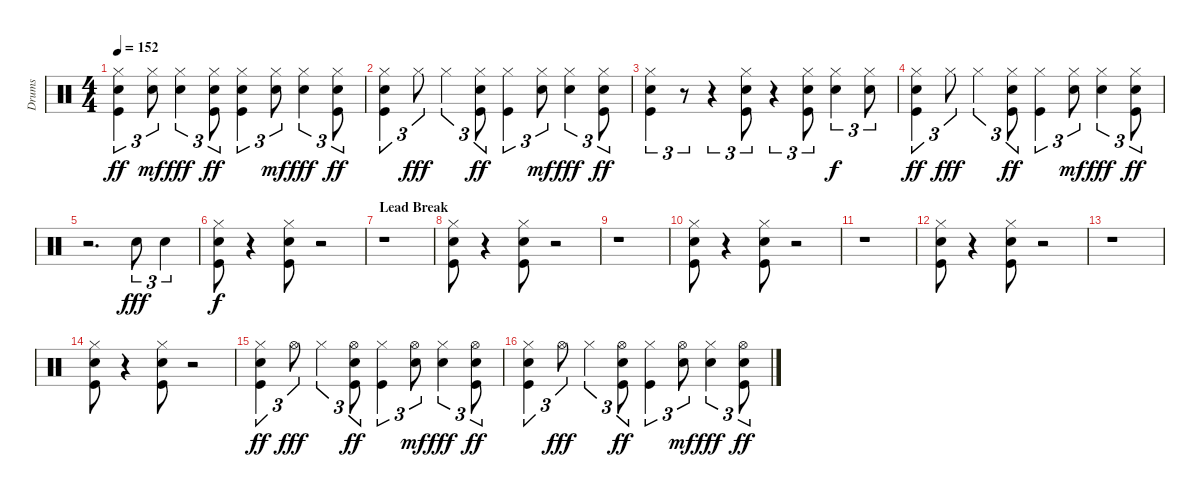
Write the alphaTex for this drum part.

\track ("Drums" "Drums") {instrument percussion}
\staff {score}
\articulation defaults
\ts (4 4)
\tempo 152
\clef neutral
\ks c
("Hi-Hat (closed)" "Snare (hit) 2" "Kick (hit)").4{tu (3 2) dy ff} ("Hi-Hat (closed)" "Snare (hit) 2").8{tu (3 2) dy mf} ("Hi-Hat (closed)" "Snare (hit) 2").4{tu (3 2) dy fff} ("Hi-Hat (closed)" "Snare (hit) 2" "Kick (hit)").8{tu (3 2) dy ff} ("Hi-Hat (closed)" "Snare (hit) 2" "Kick (hit)").4{tu (3 2)} ("Hi-Hat (closed)" "Snare (hit) 2").8{tu (3 2) dy mf} ("Hi-Hat (closed)" "Snare (hit) 2").4{tu (3 2) dy fff} ("Hi-Hat (closed)" "Snare (hit) 2" "Kick (hit)").8{tu (3 2) dy ff} |
("Hi-Hat (closed)" "Snare (hit) 2" "Kick (hit)").4{tu (3 2)} "Hi-Hat (closed)".8{tu (3 2) dy fff} "Hi-Hat (closed)".4{tu (3 2)} ("Hi-Hat (closed)" "Snare (hit) 2" "Kick (hit)").8{tu (3 2) dy ff} ("Hi-Hat (closed)" "Kick (hit)").4{tu (3 2)} ("Hi-Hat (closed)" "Snare (hit) 2").8{tu (3 2) dy mf} ("Hi-Hat (closed)" "Snare (hit) 2").4{tu (3 2) dy fff} ("Hi-Hat (closed)" "Snare (hit) 2" "Kick (hit)").8{tu (3 2) dy ff} |
("Hi-Hat (closed)" "Snare (hit) 2" "Kick (hit)").4{tu (3 2)} r.8{tu (3 2)} r.4{tu (3 2)} ("Hi-Hat (closed)" "Snare (hit) 2" "Kick (hit)").8{tu (3 2)} r.4{tu (3 2)} ("Hi-Hat (closed)" "Snare (hit) 2" "Kick (hit)").8{tu (3 2)} ("Hi-Hat (closed)" "Snare (hit) 2").4{tu (3 2) dy f} ("Hi-Hat (closed)" "Snare (hit) 2").8{tu (3 2)} |
("Hi-Hat (closed)" "Snare (hit) 2" "Kick (hit)").4{tu (3 2) dy ff} "Hi-Hat (closed)".8{tu (3 2) dy fff} "Hi-Hat (closed)".4{tu (3 2)} ("Hi-Hat (closed)" "Snare (hit) 2" "Kick (hit)").8{tu (3 2) dy ff} ("Hi-Hat (closed)" "Kick (hit)").4{tu (3 2)} ("Hi-Hat (closed)" "Snare (hit) 2").8{tu (3 2) dy mf} ("Hi-Hat (closed)" "Snare (hit) 2").4{tu (3 2) dy fff} ("Hi-Hat (closed)" "Snare (hit) 2" "Kick (hit)").8{tu (3 2) dy ff} |
r.2{d} "Snare (hit) 2".8{tu (3 2) dy fff} "Snare (hit) 2".4{tu (3 2)} |
("Hi-Hat (closed)" "Snare (hit) 2" "Kick (hit)").8{dy f} r.4 ("Hi-Hat (closed)" "Snare (hit) 2" "Kick (hit)").8 r.2 |
\section ("" "Lead Break")
r.1 |
("Hi-Hat (closed)" "Snare (hit) 2" "Kick (hit)").8 r.4 ("Hi-Hat (closed)" "Snare (hit) 2" "Kick (hit)").8 r.2 |
r.1 |
("Hi-Hat (closed)" "Snare (hit) 2" "Kick (hit)").8 r.4 ("Hi-Hat (closed)" "Snare (hit) 2" "Kick (hit)").8 r.2 |
r.1 |
("Hi-Hat (closed)" "Snare (hit) 2" "Kick (hit)").8 r.4 ("Hi-Hat (closed)" "Snare (hit) 2" "Kick (hit)").8 r.2 |
r.1 |
("Hi-Hat (closed)" "Snare (hit) 2" "Kick (hit)").8 r.4 ("Hi-Hat (closed)" "Snare (hit) 2" "Kick (hit)").8 r.2 |
("Hi-Hat (closed)" "Snare (hit) 2" "Kick (hit)").4{tu (3 2) dy ff} "Hi-Hat (open)".8{tu (3 2) dy fff} "Hi-Hat (closed)".4{tu (3 2)} ("Hi-Hat (open)" "Snare (hit) 2" "Kick (hit)").8{tu (3 2) dy ff} ("Hi-Hat (closed)" "Kick (hit)").4{tu (3 2)} ("Hi-Hat (open)" "Snare (hit) 2").8{tu (3 2) dy mf} ("Hi-Hat (closed)" "Snare (hit) 2").4{tu (3 2) dy fff} ("Hi-Hat (open)" "Snare (hit) 2" "Kick (hit)").8{tu (3 2) dy ff} |
("Hi-Hat (closed)" "Snare (hit) 2" "Kick (hit)").4{tu (3 2)} "Hi-Hat (open)".8{tu (3 2) dy fff} "Hi-Hat (closed)".4{tu (3 2)} ("Hi-Hat (open)" "Snare (hit) 2" "Kick (hit)").8{tu (3 2) dy ff} ("Hi-Hat (closed)" "Kick (hit)").4{tu (3 2)} ("Hi-Hat (open)" "Snare (hit) 2").8{tu (3 2) dy mf} ("Hi-Hat (closed)" "Snare (hit) 2").4{tu (3 2) dy fff} ("Hi-Hat (open)" "Snare (hit) 2" "Kick (hit)").8{tu (3 2) dy ff}
